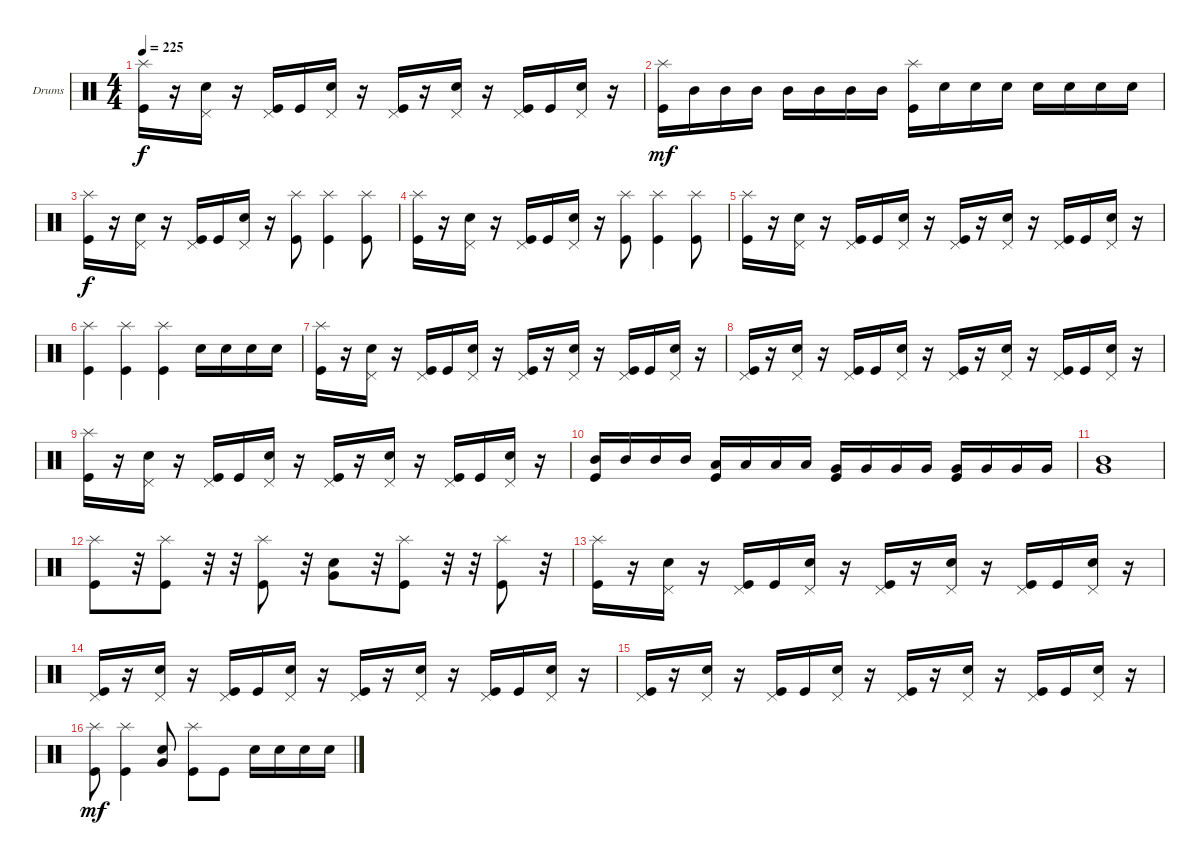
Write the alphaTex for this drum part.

\bracketExtendMode groupsimilarinstruments
\firstSystemTrackNameOrientation horizontal
\otherSystemsTrackNameOrientation horizontal
\track ("Drumkit" "Drums") {instrument percussion}
\staff {score}
\articulation defaults
\ts (4 4)
\tempo 225
\clef neutral
\scale
0.333333
\ks c
("Kick (hit)" "Splash (hit)").16{dy f} r.16 ("Pedal Hi-Hat (hit)" "Snare (hit) 2").16 r.16 ("Pedal Hi-Hat (hit)" "Kick (hit)").16 "Kick (hit)".16 ("Pedal Hi-Hat (hit)" "Snare (hit) 2").16 r.16 ("Pedal Hi-Hat (hit)" "Kick (hit)").16 r.16 ("Pedal Hi-Hat (hit)" "Snare (hit) 2").16 r.16 ("Pedal Hi-Hat (hit)" "Kick (hit)").16 "Kick (hit)".16 ("Pedal Hi-Hat (hit)" "Snare (hit) 2").16 r.16 |
\scale
0.333333 ("Kick (hit)" "Splash (hit)").16{dy mf} "Mid Tom (hit)".16 "Mid Tom (hit)".16 "Mid Tom (hit)".16 "Mid Tom (hit)".16 "Mid Tom (hit)".16 "Mid Tom (hit)".16 "Mid Tom (hit)".16 ("Kick (hit)" "Splash (hit)").16 "Snare (hit) 2".16 "Snare (hit) 2".16 "Snare (hit) 2".16 "Snare (hit) 2".16 "Snare (hit) 2".16 "Snare (hit) 2".16 "Snare (hit) 2".16 |
\scale
0.333333 ("Kick (hit)" "Splash (hit)").16{dy f} r.16 ("Pedal Hi-Hat (hit)" "Snare (hit) 2").16 r.16 ("Pedal Hi-Hat (hit)" "Kick (hit)").16 "Kick (hit)".16 ("Pedal Hi-Hat (hit)" "Snare (hit) 2").16 r.16 ("Kick (hit)" "Splash (hit)").8 ("Kick (hit)" "Splash (hit)").4 ("Kick (hit)" "Splash (hit)").8 |
\scale
0.333333 ("Kick (hit)" "Splash (hit)").16 r.16 ("Pedal Hi-Hat (hit)" "Snare (hit) 2").16 r.16 ("Pedal Hi-Hat (hit)" "Kick (hit)").16 "Kick (hit)".16 ("Pedal Hi-Hat (hit)" "Snare (hit) 2").16 r.16 ("Kick (hit)" "Splash (hit)").8 ("Kick (hit)" "Splash (hit)").4 ("Kick (hit)" "Splash (hit)").8 |
\scale
0.333333 ("Kick (hit)" "Splash (hit)").16 r.16 ("Pedal Hi-Hat (hit)" "Snare (hit) 2").16 r.16 ("Pedal Hi-Hat (hit)" "Kick (hit)").16 "Kick (hit)".16 ("Pedal Hi-Hat (hit)" "Snare (hit) 2").16 r.16 ("Pedal Hi-Hat (hit)" "Kick (hit)").16 r.16 ("Pedal Hi-Hat (hit)" "Snare (hit) 2").16 r.16 ("Pedal Hi-Hat (hit)" "Kick (hit)").16 "Kick (hit)".16 ("Pedal Hi-Hat (hit)" "Snare (hit) 2").16 r.16 |
\scale
0.333333 ("Kick (hit)" "Splash (hit)").4 ("Splash (hit)" "Kick (hit)").4 ("Splash (hit)" "Kick (hit)").4 "Snare (hit) 2".16 "Snare (hit) 2".16 "Snare (hit) 2".16 "Snare (hit) 2".16 |
\scale
0.333333 ("Kick (hit)" "Splash (hit)").16 r.16 ("Pedal Hi-Hat (hit)" "Snare (hit) 2").16 r.16 ("Pedal Hi-Hat (hit)" "Kick (hit)").16 "Kick (hit)".16 ("Pedal Hi-Hat (hit)" "Snare (hit) 2").16 r.16 ("Pedal Hi-Hat (hit)" "Kick (hit)").16 r.16 ("Pedal Hi-Hat (hit)" "Snare (hit) 2").16 r.16 ("Pedal Hi-Hat (hit)" "Kick (hit)").16 "Kick (hit)".16 ("Pedal Hi-Hat (hit)" "Snare (hit) 2").16 r.16 |
\scale
0.333333 ("Kick (hit)" "Pedal Hi-Hat (hit)").16 r.16 ("Pedal Hi-Hat (hit)" "Snare (hit) 2").16 r.16 ("Pedal Hi-Hat (hit)" "Kick (hit)").16 "Kick (hit)".16 ("Pedal Hi-Hat (hit)" "Snare (hit) 2").16 r.16 ("Pedal Hi-Hat (hit)" "Kick (hit)").16 r.16 ("Pedal Hi-Hat (hit)" "Snare (hit) 2").16 r.16 ("Pedal Hi-Hat (hit)" "Kick (hit)").16 "Kick (hit)".16 ("Pedal Hi-Hat (hit)" "Snare (hit) 2").16 r.16 |
\scale
0.333333 ("Kick (hit)" "Splash (hit)").16 r.16 ("Pedal Hi-Hat (hit)" "Snare (hit) 2").16 r.16 ("Pedal Hi-Hat (hit)" "Kick (hit)").16 "Kick (hit)".16 ("Pedal Hi-Hat (hit)" "Snare (hit) 2").16 r.16 ("Pedal Hi-Hat (hit)" "Kick (hit)").16 r.16 ("Pedal Hi-Hat (hit)" "Snare (hit) 2").16 r.16 ("Pedal Hi-Hat (hit)" "Kick (hit)").16 "Kick (hit)".16 ("Pedal Hi-Hat (hit)" "Snare (hit) 2").16 r.16 |
\scale
0.333333 ("Mid Tom (hit)" "Kick (hit)").16 "Mid Tom (hit)".16 "Mid Tom (hit)".16 "Mid Tom (hit)".16 ("Low Tom (hit)" "Kick (hit)").16 "Low Tom (hit)".16 "Low Tom (hit)".16 "Low Tom (hit)".16 ("Very Low Tom (hit)" "Kick (hit)").16 "Very Low Tom (hit)".16 "Very Low Tom (hit)".16 "Very Low Tom (hit)".16 ("Very Low Tom (hit)" "Kick (hit)").16 "Very Low Tom (hit)".16 "Very Low Tom (hit)".16 "Very Low Tom (hit)".16 |
\scale
0.333333 ("Very Low Tom (hit)" "Mid Tom (hit)").1 |
\scale
0.333333 ("Kick (hit)" "Splash (hit)").8 r.32 ("Splash (hit)" "Kick (hit)").8 r.32 r.32 ("Splash (hit)" "Kick (hit)").8 r.32 ("Snare (hit) 2" "Very Low Tom (hit)").8 r.32 ("Splash (hit)" "Kick (hit)").8 r.32 r.32 ("Splash (hit)" "Kick (hit)").8 r.32 |
\scale
0.333333 ("Kick (hit)" "Splash (hit)").16 r.16 ("Pedal Hi-Hat (hit)" "Snare (hit) 2").16 r.16 ("Pedal Hi-Hat (hit)" "Kick (hit)").16 "Kick (hit)".16 ("Pedal Hi-Hat (hit)" "Snare (hit) 2").16 r.16 ("Pedal Hi-Hat (hit)" "Kick (hit)").16 r.16 ("Pedal Hi-Hat (hit)" "Snare (hit) 2").16 r.16 ("Pedal Hi-Hat (hit)" "Kick (hit)").16 "Kick (hit)".16 ("Pedal Hi-Hat (hit)" "Snare (hit) 2").16 r.16 |
\scale
0.333333 ("Kick (hit)" "Pedal Hi-Hat (hit)").16 r.16 ("Pedal Hi-Hat (hit)" "Snare (hit) 2").16 r.16 ("Pedal Hi-Hat (hit)" "Kick (hit)").16 "Kick (hit)".16 ("Pedal Hi-Hat (hit)" "Snare (hit) 2").16 r.16 ("Pedal Hi-Hat (hit)" "Kick (hit)").16 r.16 ("Pedal Hi-Hat (hit)" "Snare (hit) 2").16 r.16 ("Pedal Hi-Hat (hit)" "Kick (hit)").16 "Kick (hit)".16 ("Pedal Hi-Hat (hit)" "Snare (hit) 2").16 r.16 |
\scale
0.333333 ("Kick (hit)" "Pedal Hi-Hat (hit)").16 r.16 ("Pedal Hi-Hat (hit)" "Snare (hit) 2").16 r.16 ("Pedal Hi-Hat (hit)" "Kick (hit)").16 "Kick (hit)".16 ("Pedal Hi-Hat (hit)" "Snare (hit) 2").16 r.16 ("Pedal Hi-Hat (hit)" "Kick (hit)").16 r.16 ("Pedal Hi-Hat (hit)" "Snare (hit) 2").16 r.16 ("Pedal Hi-Hat (hit)" "Kick (hit)").16 "Kick (hit)".16 ("Pedal Hi-Hat (hit)" "Snare (hit) 2").16 r.16 |
\scale
0.333333 ("Splash (hit)" "Kick (hit)").8{dy mf} ("Kick (hit)" "Splash (hit)").4 ("Snare (hit) 2" "Very Low Tom (hit)").8 ("Kick (hit)" "Splash (hit)").8 "Kick (hit)".8 "Snare (hit) 2".16 "Snare (hit) 2".16 "Snare (hit) 2".16 "Snare (hit) 2".16
